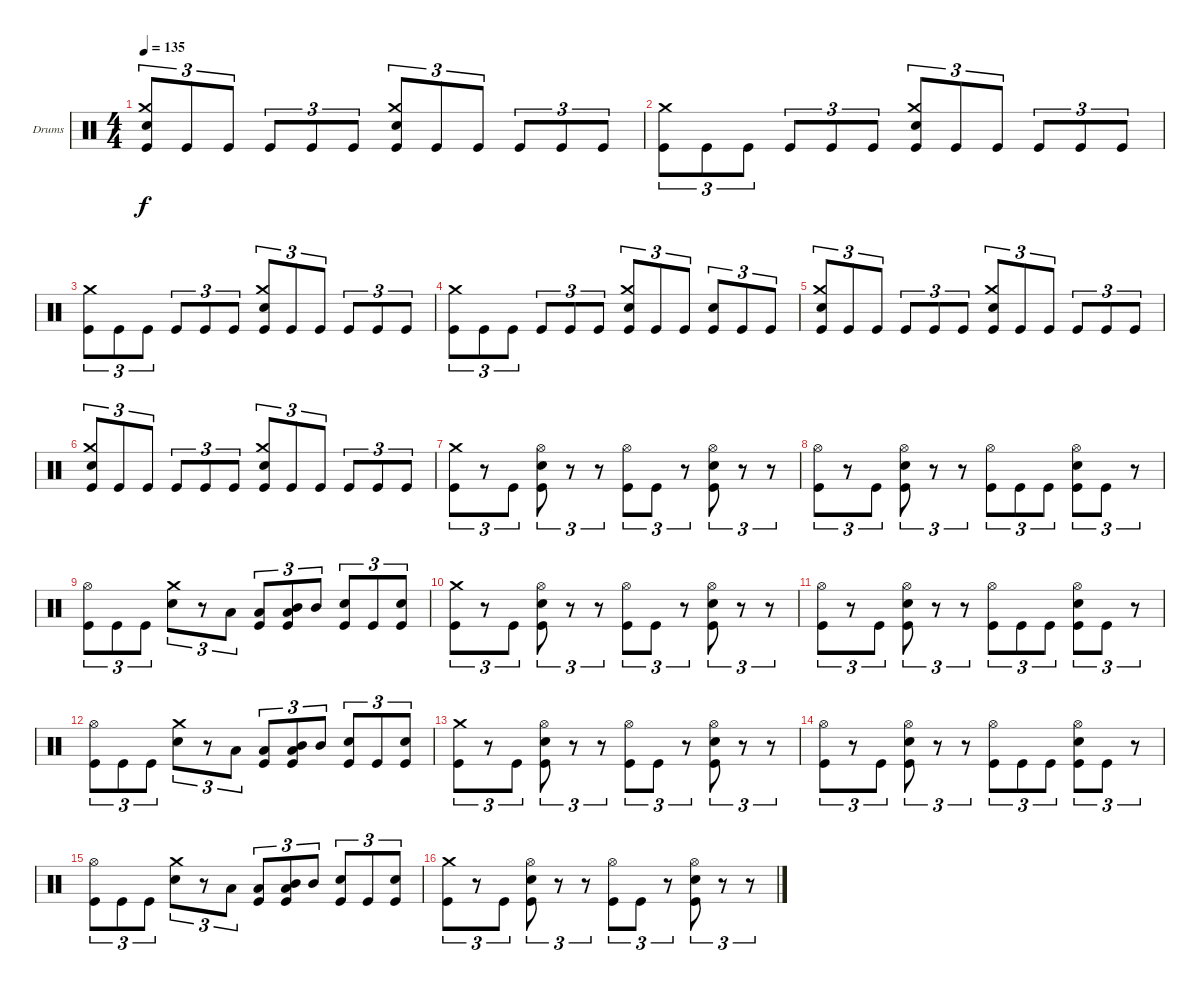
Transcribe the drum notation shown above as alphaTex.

\defaultSystemsLayout 4
\bracketExtendMode groupsimilarinstruments
\firstSystemTrackNameOrientation horizontal
\otherSystemsTrackNameOrientation horizontal
\track ("Drumkit" "Drums") {instrument percussion}
\staff {score}
\articulation defaults
\ts (4 4)
\tempo 135
\clef neutral
\ks c
("Kick (hit)" "Crash medium (hit)" "Snare (hit) 2").8{tu (3 2) dy f} "Kick (hit)".8{tu (3 2)} "Kick (hit)".8{tu (3 2)} "Kick (hit)".8{tu (3 2)} "Kick (hit)".8{tu (3 2)} "Kick (hit)".8{tu (3 2)} ("Kick (hit)" "Crash medium (hit)" "Snare (hit) 2").8{tu (3 2)} "Kick (hit)".8{tu (3 2)} "Kick (hit)".8{tu (3 2)} "Kick (hit)".8{tu (3 2)} "Kick (hit)".8{tu (3 2)} "Kick (hit)".8{tu (3 2)} |
("Kick (hit)" "Crash medium (hit)").8{tu (3 2)} "Kick (hit)".8{tu (3 2)} "Kick (hit)".8{tu (3 2)} "Kick (hit)".8{tu (3 2)} "Kick (hit)".8{tu (3 2)} "Kick (hit)".8{tu (3 2)} ("Kick (hit)" "Crash medium (hit)" "Snare (hit) 2").8{tu (3 2)} "Kick (hit)".8{tu (3 2)} "Kick (hit)".8{tu (3 2)} "Kick (hit)".8{tu (3 2)} "Kick (hit)".8{tu (3 2)} "Kick (hit)".8{tu (3 2)} |
("Kick (hit)" "Crash medium (hit)").8{tu (3 2)} "Kick (hit)".8{tu (3 2)} "Kick (hit)".8{tu (3 2)} "Kick (hit)".8{tu (3 2)} "Kick (hit)".8{tu (3 2)} "Kick (hit)".8{tu (3 2)} ("Kick (hit)" "Crash medium (hit)" "Snare (hit) 2").8{tu (3 2)} "Kick (hit)".8{tu (3 2)} "Kick (hit)".8{tu (3 2)} "Kick (hit)".8{tu (3 2)} "Kick (hit)".8{tu (3 2)} "Kick (hit)".8{tu (3 2)} |
("Kick (hit)" "Crash medium (hit)").8{tu (3 2)} "Kick (hit)".8{tu (3 2)} "Kick (hit)".8{tu (3 2)} "Kick (hit)".8{tu (3 2)} "Kick (hit)".8{tu (3 2)} "Kick (hit)".8{tu (3 2)} ("Kick (hit)" "Crash medium (hit)" "Snare (hit) 2").8{tu (3 2)} "Kick (hit)".8{tu (3 2)} "Kick (hit)".8{tu (3 2)} ("Kick (hit)" "Snare (hit) 2").8{tu (3 2)} "Kick (hit)".8{tu (3 2)} "Kick (hit)".8{tu (3 2)} |
("Kick (hit)" "Crash medium (hit)" "Snare (hit) 2").8{tu (3 2)} "Kick (hit)".8{tu (3 2)} "Kick (hit)".8{tu (3 2)} "Kick (hit)".8{tu (3 2)} "Kick (hit)".8{tu (3 2)} "Kick (hit)".8{tu (3 2)} ("Kick (hit)" "Crash medium (hit)" "Snare (hit) 2").8{tu (3 2)} "Kick (hit)".8{tu (3 2)} "Kick (hit)".8{tu (3 2)} "Kick (hit)".8{tu (3 2)} "Kick (hit)".8{tu (3 2)} "Kick (hit)".8{tu (3 2)} |
("Kick (hit)" "Crash medium (hit)" "Snare (hit) 2").8{tu (3 2)} "Kick (hit)".8{tu (3 2)} "Kick (hit)".8{tu (3 2)} "Kick (hit)".8{tu (3 2)} "Kick (hit)".8{tu (3 2)} "Kick (hit)".8{tu (3 2)} ("Kick (hit)" "Crash medium (hit)" "Snare (hit) 2").8{tu (3 2)} "Kick (hit)".8{tu (3 2)} "Kick (hit)".8{tu (3 2)} "Kick (hit)".8{tu (3 2)} "Kick (hit)".8{tu (3 2)} "Kick (hit)".8{tu (3 2)} |
("Kick (hit)" "Crash medium (hit)").8{tu (3 2)} r.8{tu (3 2)} "Kick (hit)".8{tu (3 2)} ("Kick (hit)" "Snare (hit) 2" "Hi-Hat (open)").8{tu (3 2)} r.8{tu (3 2)} r.8{tu (3 2)} ("Kick (hit)" "Hi-Hat (open)").8{tu (3 2)} "Kick (hit)".8{tu (3 2)} r.8{tu (3 2)} ("Kick (hit)" "Snare (hit) 2" "Hi-Hat (open)").8{tu (3 2)} r.8{tu (3 2)} r.8{tu (3 2)} |
("Kick (hit)" "Hi-Hat (open)").8{tu (3 2)} r.8{tu (3 2)} "Kick (hit)".8{tu (3 2)} ("Kick (hit)" "Snare (hit) 2" "Hi-Hat (open)").8{tu (3 2)} r.8{tu (3 2)} r.8{tu (3 2)} ("Kick (hit)" "Hi-Hat (open)").8{tu (3 2)} "Kick (hit)".8{tu (3 2)} "Kick (hit)".8{tu (3 2)} ("Kick (hit)" "Snare (hit) 2" "Hi-Hat (open)").8{tu (3 2)} "Kick (hit)".8{tu (3 2)} r.8{tu (3 2)} |
("Kick (hit)" "Hi-Hat (open)").8{tu (3 2)} "Kick (hit)".8{tu (3 2)} "Kick (hit)".8{tu (3 2)} ("Snare (hit) 2" "Crash medium (hit)").8{tu (3 2)} r.8{tu (3 2)} "Low Tom (hit)".8{tu (3 2)} ("Kick (hit)" "Low Tom (hit)").8{tu (3 2)} ("Kick (hit)" "Low Tom (hit)" "Mid Tom (hit)").8{tu (3 2)} "Mid Tom (hit)".8{tu (3 2)} ("Kick (hit)" "Snare (hit) 2").8{tu (3 2)} "Kick (hit)".8{tu (3 2)} ("Kick (hit)" "Snare (hit) 2").8{tu (3 2)} |
("Kick (hit)" "Crash medium (hit)").8{tu (3 2)} r.8{tu (3 2)} "Kick (hit)".8{tu (3 2)} ("Kick (hit)" "Snare (hit) 2" "Hi-Hat (open)").8{tu (3 2)} r.8{tu (3 2)} r.8{tu (3 2)} ("Kick (hit)" "Hi-Hat (open)").8{tu (3 2)} "Kick (hit)".8{tu (3 2)} r.8{tu (3 2)} ("Kick (hit)" "Snare (hit) 2" "Hi-Hat (open)").8{tu (3 2)} r.8{tu (3 2)} r.8{tu (3 2)} |
("Kick (hit)" "Hi-Hat (open)").8{tu (3 2)} r.8{tu (3 2)} "Kick (hit)".8{tu (3 2)} ("Kick (hit)" "Snare (hit) 2" "Hi-Hat (open)").8{tu (3 2)} r.8{tu (3 2)} r.8{tu (3 2)} ("Kick (hit)" "Hi-Hat (open)").8{tu (3 2)} "Kick (hit)".8{tu (3 2)} "Kick (hit)".8{tu (3 2)} ("Kick (hit)" "Snare (hit) 2" "Hi-Hat (open)").8{tu (3 2)} "Kick (hit)".8{tu (3 2)} r.8{tu (3 2)} |
("Kick (hit)" "Hi-Hat (open)").8{tu (3 2)} "Kick (hit)".8{tu (3 2)} "Kick (hit)".8{tu (3 2)} ("Snare (hit) 2" "Crash medium (hit)").8{tu (3 2)} r.8{tu (3 2)} "Low Tom (hit)".8{tu (3 2)} ("Kick (hit)" "Low Tom (hit)").8{tu (3 2)} ("Kick (hit)" "Low Tom (hit)" "Mid Tom (hit)").8{tu (3 2)} "Mid Tom (hit)".8{tu (3 2)} ("Kick (hit)" "Snare (hit) 2").8{tu (3 2)} "Kick (hit)".8{tu (3 2)} ("Kick (hit)" "Snare (hit) 2").8{tu (3 2)} |
("Kick (hit)" "Crash medium (hit)").8{tu (3 2)} r.8{tu (3 2)} "Kick (hit)".8{tu (3 2)} ("Kick (hit)" "Snare (hit) 2" "Hi-Hat (open)").8{tu (3 2)} r.8{tu (3 2)} r.8{tu (3 2)} ("Kick (hit)" "Hi-Hat (open)").8{tu (3 2)} "Kick (hit)".8{tu (3 2)} r.8{tu (3 2)} ("Kick (hit)" "Snare (hit) 2" "Hi-Hat (open)").8{tu (3 2)} r.8{tu (3 2)} r.8{tu (3 2)} |
("Kick (hit)" "Hi-Hat (open)").8{tu (3 2)} r.8{tu (3 2)} "Kick (hit)".8{tu (3 2)} ("Kick (hit)" "Snare (hit) 2" "Hi-Hat (open)").8{tu (3 2)} r.8{tu (3 2)} r.8{tu (3 2)} ("Kick (hit)" "Hi-Hat (open)").8{tu (3 2)} "Kick (hit)".8{tu (3 2)} "Kick (hit)".8{tu (3 2)} ("Kick (hit)" "Snare (hit) 2" "Hi-Hat (open)").8{tu (3 2)} "Kick (hit)".8{tu (3 2)} r.8{tu (3 2)} |
("Kick (hit)" "Hi-Hat (open)").8{tu (3 2)} "Kick (hit)".8{tu (3 2)} "Kick (hit)".8{tu (3 2)} ("Snare (hit) 2" "Crash medium (hit)").8{tu (3 2)} r.8{tu (3 2)} "Low Tom (hit)".8{tu (3 2)} ("Kick (hit)" "Low Tom (hit)").8{tu (3 2)} ("Kick (hit)" "Low Tom (hit)" "Mid Tom (hit)").8{tu (3 2)} "Mid Tom (hit)".8{tu (3 2)} ("Kick (hit)" "Snare (hit) 2").8{tu (3 2)} "Kick (hit)".8{tu (3 2)} ("Kick (hit)" "Snare (hit) 2").8{tu (3 2)} |
("Kick (hit)" "Crash medium (hit)").8{tu (3 2)} r.8{tu (3 2)} "Kick (hit)".8{tu (3 2)} ("Kick (hit)" "Snare (hit) 2" "Hi-Hat (open)").8{tu (3 2)} r.8{tu (3 2)} r.8{tu (3 2)} ("Kick (hit)" "Hi-Hat (open)").8{tu (3 2)} "Kick (hit)".8{tu (3 2)} r.8{tu (3 2)} ("Kick (hit)" "Snare (hit) 2" "Hi-Hat (open)").8{tu (3 2)} r.8{tu (3 2)} r.8{tu (3 2)}
